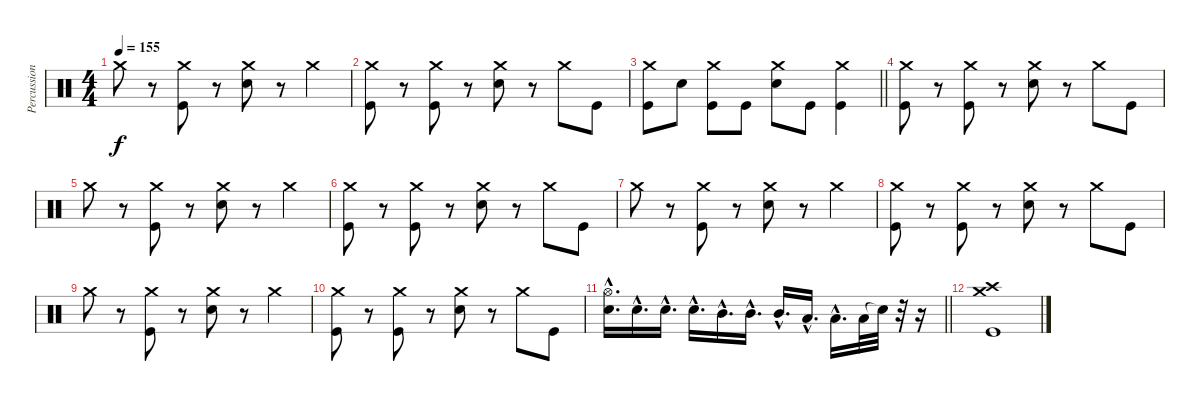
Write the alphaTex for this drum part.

\track ("Percussion" "Percussion") {instrument percussion}
\staff {score}
\articulation defaults
\ts (4 4)
\tempo 155
\clef neutral
\ks c "Crash medium (hit)".8{dy f}
r.8 ("Crash medium (hit)" "Kick (hit)").8 r.8 ("Crash medium (hit)" "Electric Snare (hit)").8 r.8 "Crash medium (hit)".4 |
("Crash medium (hit)" "Kick (hit)").8 r.8 ("Crash medium (hit)" "Kick (hit)").8 r.8 ("Crash medium (hit)" "Electric Snare (hit)").8 r.8 "Crash medium (hit)".8 "Kick (hit)".8 |
\barLineRight lightlight
("Crash medium (hit)" "Kick (hit)").8 "Electric Snare (hit)".8 ("Crash medium (hit)" "Kick (hit)").8 "Kick (hit)".8 ("Crash medium (hit)" "Electric Snare (hit)").8 "Kick (hit)".8 ("Crash medium (hit)" "Kick (hit)").4 |
("Crash medium (hit)" "Kick (hit)").8 r.8 ("Crash medium (hit)" "Kick (hit)").8 r.8 ("Crash medium (hit)" "Electric Snare (hit)").8 r.8 "Crash medium (hit)".8 "Kick (hit)".8 |
"Crash medium (hit)".8 r.8 ("Crash medium (hit)" "Kick (hit)").8 r.8 ("Crash medium (hit)" "Electric Snare (hit)").8 r.8 "Crash medium (hit)".4 |
("Crash medium (hit)" "Kick (hit)").8 r.8 ("Crash medium (hit)" "Kick (hit)").8 r.8 ("Crash medium (hit)" "Electric Snare (hit)").8 r.8 "Crash medium (hit)".8 "Kick (hit)".8 |
"Crash medium (hit)".8 r.8 ("Crash medium (hit)" "Kick (hit)").8 r.8 ("Crash medium (hit)" "Electric Snare (hit)").8 r.8 "Crash medium (hit)".4 |
("Crash medium (hit)" "Kick (hit)").8 r.8 ("Crash medium (hit)" "Kick (hit)").8 r.8 ("Crash medium (hit)" "Electric Snare (hit)").8 r.8 "Crash medium (hit)".8 "Kick (hit)".8 |
"Crash medium (hit)".8 r.8 ("Crash medium (hit)" "Kick (hit)").8 r.8 ("Crash medium (hit)" "Electric Snare (hit)").8 r.8 "Crash medium (hit)".4 |
("Crash medium (hit)" "Kick (hit)").8 r.8 ("Crash medium (hit)" "Kick (hit)").8 r.8 ("Crash medium (hit)" "Electric Snare (hit)").8 r.8 "Crash medium (hit)".8 "Kick (hit)".8 |
\barLineRight lightlight
("Hi-Hat (open)"{hac} "Electric Snare (hit)"{hac}).16{d} "Electric Snare (hit)"{hac}.16{d} "Electric Snare (hit)"{hac}.16{d} "Electric Snare (hit)"{hac}.16{d} "Mid Tom (hit)"{hac}.16{d} "Mid Tom (hit)"{hac}.16{d} "Mid Tom (hit)"{hac}.16{d} "Low Tom (hit)"{hac}.16{d} "Low Tom (hit)"{hac}.16{d} "Low Tom (hit)".32 "Snare (hit)"{t}.32 r.32 r.16 |
("Crash medium (hit)" "Crash high (hit)" "Kick (hit)").1
